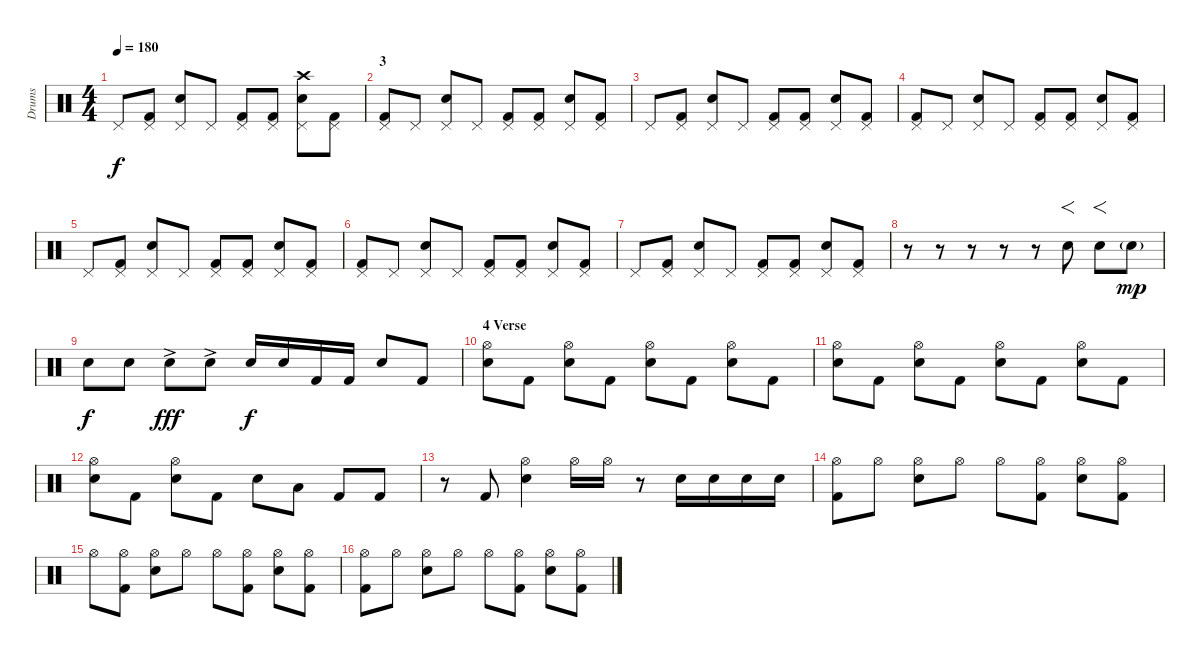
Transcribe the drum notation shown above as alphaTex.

\track ("Drums" "Drums") {instrument percussion}
\staff {score}
\articulation defaults
\ts (4 4)
\tempo 180
\clef neutral
\ks c "Pedal Hi-Hat (hit)".8{dy f}
("Pedal Hi-Hat (hit)" "Kick (hit) 2").8 ("Pedal Hi-Hat (hit)" "Electric Snare (hit)").8 "Pedal Hi-Hat (hit)".8 ("Pedal Hi-Hat (hit)" "Kick (hit) 2").8 ("Pedal Hi-Hat (hit)" "Kick (hit) 2").8 ("Crash high (hit)" "Pedal Hi-Hat (hit)" "Electric Snare (hit)").8 ("Pedal Hi-Hat (hit)" "Kick (hit) 2").8 |
\section ("" "3")
("Pedal Hi-Hat (hit)" "Kick (hit) 2").8 "Pedal Hi-Hat (hit)".8 ("Pedal Hi-Hat (hit)" "Electric Snare (hit)").8 "Pedal Hi-Hat (hit)".8 ("Pedal Hi-Hat (hit)" "Kick (hit) 2").8 ("Pedal Hi-Hat (hit)" "Kick (hit) 2").8 ("Pedal Hi-Hat (hit)" "Electric Snare (hit)").8 ("Pedal Hi-Hat (hit)" "Kick (hit) 2").8 |
"Pedal Hi-Hat (hit)".8 ("Pedal Hi-Hat (hit)" "Kick (hit) 2").8 ("Pedal Hi-Hat (hit)" "Electric Snare (hit)").8 "Pedal Hi-Hat (hit)".8 ("Pedal Hi-Hat (hit)" "Kick (hit) 2").8 ("Pedal Hi-Hat (hit)" "Kick (hit) 2").8 ("Pedal Hi-Hat (hit)" "Electric Snare (hit)").8 ("Pedal Hi-Hat (hit)" "Kick (hit) 2").8 |
("Pedal Hi-Hat (hit)" "Kick (hit) 2").8 "Pedal Hi-Hat (hit)".8 ("Pedal Hi-Hat (hit)" "Electric Snare (hit)").8 "Pedal Hi-Hat (hit)".8 ("Pedal Hi-Hat (hit)" "Kick (hit) 2").8 ("Pedal Hi-Hat (hit)" "Kick (hit) 2").8 ("Pedal Hi-Hat (hit)" "Electric Snare (hit)").8 ("Pedal Hi-Hat (hit)" "Kick (hit) 2").8 |
"Pedal Hi-Hat (hit)".8 ("Pedal Hi-Hat (hit)" "Kick (hit) 2").8 ("Pedal Hi-Hat (hit)" "Electric Snare (hit)").8 "Pedal Hi-Hat (hit)".8 ("Pedal Hi-Hat (hit)" "Kick (hit) 2").8 ("Pedal Hi-Hat (hit)" "Kick (hit) 2").8 ("Pedal Hi-Hat (hit)" "Electric Snare (hit)").8 ("Pedal Hi-Hat (hit)" "Kick (hit) 2").8 |
("Pedal Hi-Hat (hit)" "Kick (hit) 2").8 "Pedal Hi-Hat (hit)".8 ("Pedal Hi-Hat (hit)" "Electric Snare (hit)").8 "Pedal Hi-Hat (hit)".8 ("Pedal Hi-Hat (hit)" "Kick (hit) 2").8 ("Pedal Hi-Hat (hit)" "Kick (hit) 2").8 ("Pedal Hi-Hat (hit)" "Electric Snare (hit)").8 ("Pedal Hi-Hat (hit)" "Kick (hit) 2").8 |
"Pedal Hi-Hat (hit)".8 ("Pedal Hi-Hat (hit)" "Kick (hit) 2").8 ("Pedal Hi-Hat (hit)" "Electric Snare (hit)").8 "Pedal Hi-Hat (hit)".8 ("Pedal Hi-Hat (hit)" "Kick (hit) 2").8 ("Pedal Hi-Hat (hit)" "Kick (hit) 2").8 ("Pedal Hi-Hat (hit)" "Electric Snare (hit)").8 ("Pedal Hi-Hat (hit)" "Kick (hit) 2").8 |
r.8 r.8 r.8 r.8 r.8 "Electric Snare (hit)".8{f} "Electric Snare (hit)".8{f} "Electric Snare (hit)"{g}.8{dy mp} |
"Electric Snare (hit)".8{dy f} "Electric Snare (hit)".8 "Electric Snare (hit)"{ac}.8{dy fff} "Electric Snare (hit)"{ac}.8 "Electric Snare (hit)".16{dy f} "Electric Snare (hit)".16 "Kick (hit) 2".16 "Kick (hit) 2".16 "Electric Snare (hit)".8 "Kick (hit) 2".8 |
\section ("" "4 Verse")
("Hi-Hat (open)" "Electric Snare (hit)").8 "Kick (hit) 2".8 ("Hi-Hat (open)" "Electric Snare (hit)").8 "Kick (hit) 2".8 ("Hi-Hat (open)" "Electric Snare (hit)").8 "Kick (hit) 2".8 ("Hi-Hat (open)" "Electric Snare (hit)").8 "Kick (hit) 2".8 |
("Hi-Hat (open)" "Electric Snare (hit)").8 "Kick (hit) 2".8 ("Hi-Hat (open)" "Electric Snare (hit)").8 "Kick (hit) 2".8 ("Hi-Hat (open)" "Electric Snare (hit)").8 "Kick (hit) 2".8 ("Hi-Hat (open)" "Electric Snare (hit)").8 "Kick (hit) 2".8 |
("Hi-Hat (open)" "Electric Snare (hit)").8 "Kick (hit) 2".8 ("Hi-Hat (open)" "Electric Snare (hit)").8 "Kick (hit) 2".8 "Electric Snare (hit)".8 "Low Tom (hit)".8 "Kick (hit) 2".8 "Kick (hit) 2".8 |
r.8 "Kick (hit) 2".8 ("Hi-Hat (open)" "Electric Snare (hit)").4 "Hi-Hat (open)".16 "Hi-Hat (open)".16 r.8 "Electric Snare (hit)".16 "Electric Snare (hit)".16 "Electric Snare (hit)".16 "Electric Snare (hit)".16 |
("Hi-Hat (open)" "Kick (hit) 2").8 "Hi-Hat (open)".8 ("Hi-Hat (open)" "Electric Snare (hit)").8 "Hi-Hat (open)".8 "Hi-Hat (open)".8 ("Hi-Hat (open)" "Kick (hit) 2").8 ("Hi-Hat (open)" "Electric Snare (hit)").8 ("Hi-Hat (open)" "Kick (hit) 2").8 |
"Hi-Hat (open)".8 ("Hi-Hat (open)" "Kick (hit) 2").8 ("Hi-Hat (open)" "Electric Snare (hit)").8 "Hi-Hat (open)".8 "Hi-Hat (open)".8 ("Hi-Hat (open)" "Kick (hit) 2").8 ("Hi-Hat (open)" "Electric Snare (hit)").8 ("Hi-Hat (open)" "Kick (hit) 2").8 |
("Hi-Hat (open)" "Kick (hit) 2").8 "Hi-Hat (open)".8 ("Hi-Hat (open)" "Electric Snare (hit)").8 "Hi-Hat (open)".8 "Hi-Hat (open)".8 ("Hi-Hat (open)" "Kick (hit) 2").8 ("Hi-Hat (open)" "Electric Snare (hit)").8 ("Hi-Hat (open)" "Kick (hit) 2").8
